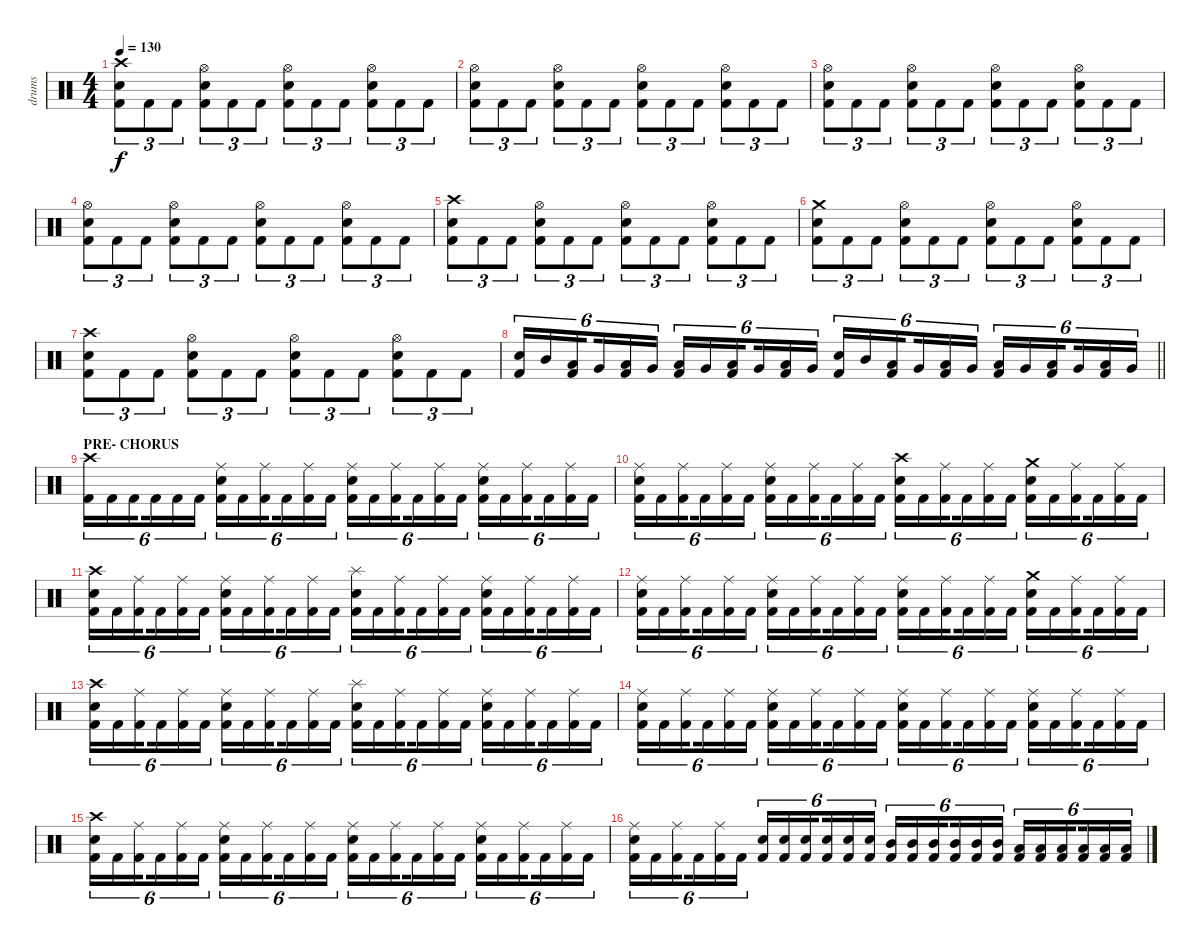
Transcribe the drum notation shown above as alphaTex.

\track ("drums" "drums") {instrument percussion}
\staff {score}
\articulation defaults
\ts (4 4)
\tempo 130
\clef neutral
\ks c
("Crash high (hit)" "Electric Snare (hit)" "Kick (hit) 2").8{tu (3 2) dy f} "Kick (hit) 2".8{tu (3 2)} "Kick (hit) 2".8{tu (3 2)} ("Hi-Hat (open)" "Electric Snare (hit)" "Kick (hit) 2").8{tu (3 2)} "Kick (hit) 2".8{tu (3 2)} "Kick (hit) 2".8{tu (3 2)} ("Hi-Hat (open)" "Electric Snare (hit)" "Kick (hit) 2").8{tu (3 2)} "Kick (hit) 2".8{tu (3 2)} "Kick (hit) 2".8{tu (3 2)} ("Hi-Hat (open)" "Electric Snare (hit)" "Kick (hit) 2").8{tu (3 2)} "Kick (hit) 2".8{tu (3 2)} "Kick (hit) 2".8{tu (3 2)} |
("Hi-Hat (open)" "Electric Snare (hit)" "Kick (hit) 2").8{tu (3 2)} "Kick (hit) 2".8{tu (3 2)} "Kick (hit) 2".8{tu (3 2)} ("Hi-Hat (open)" "Electric Snare (hit)" "Kick (hit) 2").8{tu (3 2)} "Kick (hit) 2".8{tu (3 2)} "Kick (hit) 2".8{tu (3 2)} ("Hi-Hat (open)" "Electric Snare (hit)" "Kick (hit) 2").8{tu (3 2)} "Kick (hit) 2".8{tu (3 2)} "Kick (hit) 2".8{tu (3 2)} ("Hi-Hat (open)" "Electric Snare (hit)" "Kick (hit) 2").8{tu (3 2)} "Kick (hit) 2".8{tu (3 2)} "Kick (hit) 2".8{tu (3 2)} |
("Hi-Hat (open)" "Electric Snare (hit)" "Kick (hit) 2").8{tu (3 2)} "Kick (hit) 2".8{tu (3 2)} "Kick (hit) 2".8{tu (3 2)} ("Hi-Hat (open)" "Electric Snare (hit)" "Kick (hit) 2").8{tu (3 2)} "Kick (hit) 2".8{tu (3 2)} "Kick (hit) 2".8{tu (3 2)} ("Hi-Hat (open)" "Electric Snare (hit)" "Kick (hit) 2").8{tu (3 2)} "Kick (hit) 2".8{tu (3 2)} "Kick (hit) 2".8{tu (3 2)} ("Hi-Hat (open)" "Electric Snare (hit)" "Kick (hit) 2").8{tu (3 2)} "Kick (hit) 2".8{tu (3 2)} "Kick (hit) 2".8{tu (3 2)} |
("Hi-Hat (open)" "Electric Snare (hit)" "Kick (hit) 2").8{tu (3 2)} "Kick (hit) 2".8{tu (3 2)} "Kick (hit) 2".8{tu (3 2)} ("Hi-Hat (open)" "Electric Snare (hit)" "Kick (hit) 2").8{tu (3 2)} "Kick (hit) 2".8{tu (3 2)} "Kick (hit) 2".8{tu (3 2)} ("Hi-Hat (open)" "Electric Snare (hit)" "Kick (hit) 2").8{tu (3 2)} "Kick (hit) 2".8{tu (3 2)} "Kick (hit) 2".8{tu (3 2)} ("Hi-Hat (open)" "Electric Snare (hit)" "Kick (hit) 2").8{tu (3 2)} "Kick (hit) 2".8{tu (3 2)} "Kick (hit) 2".8{tu (3 2)} |
("Crash high (hit)" "Electric Snare (hit)" "Kick (hit) 2").8{tu (3 2)} "Kick (hit) 2".8{tu (3 2)} "Kick (hit) 2".8{tu (3 2)} ("Hi-Hat (open)" "Electric Snare (hit)" "Kick (hit) 2").8{tu (3 2)} "Kick (hit) 2".8{tu (3 2)} "Kick (hit) 2".8{tu (3 2)} ("Hi-Hat (open)" "Electric Snare (hit)" "Kick (hit) 2").8{tu (3 2)} "Kick (hit) 2".8{tu (3 2)} "Kick (hit) 2".8{tu (3 2)} ("Hi-Hat (open)" "Electric Snare (hit)" "Kick (hit) 2").8{tu (3 2)} "Kick (hit) 2".8{tu (3 2)} "Kick (hit) 2".8{tu (3 2)} |
("Crash medium (hit)" "Electric Snare (hit)" "Kick (hit) 2").8{tu (3 2)} "Kick (hit) 2".8{tu (3 2)} "Kick (hit) 2".8{tu (3 2)} ("Hi-Hat (open)" "Electric Snare (hit)" "Kick (hit) 2").8{tu (3 2)} "Kick (hit) 2".8{tu (3 2)} "Kick (hit) 2".8{tu (3 2)} ("Hi-Hat (open)" "Electric Snare (hit)" "Kick (hit) 2").8{tu (3 2)} "Kick (hit) 2".8{tu (3 2)} "Kick (hit) 2".8{tu (3 2)} ("Hi-Hat (open)" "Electric Snare (hit)" "Kick (hit) 2").8{tu (3 2)} "Kick (hit) 2".8{tu (3 2)} "Kick (hit) 2".8{tu (3 2)} |
("Crash high (hit)" "Electric Snare (hit)" "Kick (hit) 2").8{tu (3 2)} "Kick (hit) 2".8{tu (3 2)} "Kick (hit) 2".8{tu (3 2)} ("Hi-Hat (open)" "Electric Snare (hit)" "Kick (hit) 2").8{tu (3 2)} "Kick (hit) 2".8{tu (3 2)} "Kick (hit) 2".8{tu (3 2)} ("Hi-Hat (open)" "Electric Snare (hit)" "Kick (hit) 2").8{tu (3 2)} "Kick (hit) 2".8{tu (3 2)} "Kick (hit) 2".8{tu (3 2)} ("Hi-Hat (open)" "Electric Snare (hit)" "Kick (hit) 2").8{tu (3 2)} "Kick (hit) 2".8{tu (3 2)} "Kick (hit) 2".8{tu (3 2)} |
\barLineRight lightlight
("Electric Snare (hit)" "Kick (hit) 2").16{tu (6 4)} "Mid Tom (hit)".16{tu (6 4)} ("Low Tom (hit)" "Kick (hit) 2").16{tu (6 4) beam splitsecondary} "Very Low Tom (hit)".16{tu (6 4)} ("Low Floor Tom (hit)" "Kick (hit) 2").16{tu (6 4)} "Very Low Tom (hit)".16{tu (6 4)} ("Low Tom (hit)" "Kick (hit) 2").16{tu (6 4)} "Very Low Tom (hit)".16{tu (6 4)} ("Low Tom (hit)" "Kick (hit) 2").16{tu (6 4) beam splitsecondary} "Very Low Tom (hit)".16{tu (6 4)} ("Low Floor Tom (hit)" "Kick (hit) 2").16{tu (6 4)} "Very Low Tom (hit)".16{tu (6 4)} ("Electric Snare (hit)" "Kick (hit) 2").16{tu (6 4)} "Mid Tom (hit)".16{tu (6 4)} ("Low Tom (hit)" "Kick (hit) 2").16{tu (6 4) beam splitsecondary} "Very Low Tom (hit)".16{tu (6 4)} ("Low Floor Tom (hit)" "Kick (hit) 2").16{tu (6 4)} "Very Low Tom (hit)".16{tu (6 4)} ("Low Tom (hit)" "Kick (hit) 2").16{tu (6 4)} "Very Low Tom (hit)".16{tu (6 4)} ("Low Tom (hit)" "Kick (hit) 2").16{tu (6 4) beam splitsecondary} "Very Low Tom (hit)".16{tu (6 4)} ("Low Floor Tom (hit)" "Kick (hit) 2").16{tu (6 4)} "Very Low Tom (hit)".16{tu (6 4)} |
\section ("" "PRE- CHORUS")
("Crash high (hit)" "Kick (hit) 2").16{tu (6 4)} "Kick (hit) 2".16{tu (6 4)} "Kick (hit) 2".16{tu (6 4) beam splitsecondary} "Kick (hit) 2".16{tu (6 4)} "Kick (hit) 2".16{tu (6 4)} "Kick (hit) 2".16{tu (6 4)} ("Ride (middle)" "Electric Snare (hit)" "Kick (hit) 2").16{tu (6 4)} "Kick (hit) 2".16{tu (6 4)} ("Ride (middle)" "Kick (hit) 2").16{tu (6 4) beam splitsecondary} "Kick (hit) 2".16{tu (6 4)} ("Ride (middle)" "Kick (hit) 2").16{tu (6 4)} "Kick (hit) 2".16{tu (6 4)} ("Ride (middle)" "Electric Snare (hit)" "Kick (hit) 2").16{tu (6 4)} "Kick (hit) 2".16{tu (6 4)} ("Ride (middle)" "Kick (hit) 2").16{tu (6 4) beam splitsecondary} "Kick (hit) 2".16{tu (6 4)} ("Ride (middle)" "Kick (hit) 2").16{tu (6 4)} "Kick (hit) 2".16{tu (6 4)} ("Ride (middle)" "Electric Snare (hit)" "Kick (hit) 2").16{tu (6 4)} "Kick (hit) 2".16{tu (6 4)} ("Ride (middle)" "Kick (hit) 2").16{tu (6 4) beam splitsecondary} "Kick (hit) 2".16{tu (6 4)} ("Ride (middle)" "Kick (hit) 2").16{tu (6 4)} "Kick (hit) 2".16{tu (6 4)} |
("Ride (middle)" "Electric Snare (hit)" "Kick (hit) 2").16{tu (6 4)} "Kick (hit) 2".16{tu (6 4)} ("Ride (middle)" "Kick (hit) 2").16{tu (6 4) beam splitsecondary} "Kick (hit) 2".16{tu (6 4)} ("Ride (middle)" "Kick (hit) 2").16{tu (6 4)} "Kick (hit) 2".16{tu (6 4)} ("Ride (middle)" "Electric Snare (hit)" "Kick (hit) 2").16{tu (6 4)} "Kick (hit) 2".16{tu (6 4)} ("Ride (middle)" "Kick (hit) 2").16{tu (6 4) beam splitsecondary} "Kick (hit) 2".16{tu (6 4)} ("Ride (middle)" "Kick (hit) 2").16{tu (6 4)} "Kick (hit) 2".16{tu (6 4)} ("Crash high (hit)" "Electric Snare (hit)" "Kick (hit) 2").16{tu (6 4)} "Kick (hit) 2".16{tu (6 4)} ("Ride (middle)" "Kick (hit) 2").16{tu (6 4) beam splitsecondary} "Kick (hit) 2".16{tu (6 4)} ("Ride (middle)" "Kick (hit) 2").16{tu (6 4)} "Kick (hit) 2".16{tu (6 4)} ("Crash medium (hit)" "Electric Snare (hit)" "Kick (hit) 2").16{tu (6 4)} "Kick (hit) 2".16{tu (6 4)} ("Ride (middle)" "Kick (hit) 2").16{tu (6 4) beam splitsecondary} "Kick (hit) 2".16{tu (6 4)} ("Ride (middle)" "Kick (hit) 2").16{tu (6 4)} "Kick (hit) 2".16{tu (6 4)} |
("Crash high (hit)" "Electric Snare (hit)" "Kick (hit) 2").16{tu (6 4)} "Kick (hit) 2".16{tu (6 4)} ("Ride (middle)" "Kick (hit) 2").16{tu (6 4) beam splitsecondary} "Kick (hit) 2".16{tu (6 4)} ("Ride (middle)" "Kick (hit) 2").16{tu (6 4)} "Kick (hit) 2".16{tu (6 4)} ("Ride (middle)" "Electric Snare (hit)" "Kick (hit) 2").16{tu (6 4)} "Kick (hit) 2".16{tu (6 4)} ("Ride (middle)" "Kick (hit) 2").16{tu (6 4) beam splitsecondary} "Kick (hit) 2".16{tu (6 4)} ("Ride (middle)" "Kick (hit) 2").16{tu (6 4)} "Kick (hit) 2".16{tu (6 4)} ("Splash (hit)" "Electric Snare (hit)" "Kick (hit) 2").16{tu (6 4)} "Kick (hit) 2".16{tu (6 4)} ("Ride (middle)" "Kick (hit) 2").16{tu (6 4) beam splitsecondary} "Kick (hit) 2".16{tu (6 4)} ("Ride (middle)" "Kick (hit) 2").16{tu (6 4)} "Kick (hit) 2".16{tu (6 4)} ("Ride (middle)" "Electric Snare (hit)" "Kick (hit) 2").16{tu (6 4)} "Kick (hit) 2".16{tu (6 4)} ("Ride (middle)" "Kick (hit) 2").16{tu (6 4) beam splitsecondary} "Kick (hit) 2".16{tu (6 4)} ("Ride (middle)" "Kick (hit) 2").16{tu (6 4)} "Kick (hit) 2".16{tu (6 4)} |
("Ride (middle)" "Electric Snare (hit)" "Kick (hit) 2").16{tu (6 4)} "Kick (hit) 2".16{tu (6 4)} ("Ride (middle)" "Kick (hit) 2").16{tu (6 4) beam splitsecondary} "Kick (hit) 2".16{tu (6 4)} ("Ride (middle)" "Kick (hit) 2").16{tu (6 4)} "Kick (hit) 2".16{tu (6 4)} ("Ride (middle)" "Electric Snare (hit)" "Kick (hit) 2").16{tu (6 4)} "Kick (hit) 2".16{tu (6 4)} ("Ride (middle)" "Kick (hit) 2").16{tu (6 4) beam splitsecondary} "Kick (hit) 2".16{tu (6 4)} ("Ride (middle)" "Kick (hit) 2").16{tu (6 4)} "Kick (hit) 2".16{tu (6 4)} ("Ride (middle)" "Electric Snare (hit)" "Kick (hit) 2").16{tu (6 4)} "Kick (hit) 2".16{tu (6 4)} ("Ride (middle)" "Kick (hit) 2").16{tu (6 4) beam splitsecondary} "Kick (hit) 2".16{tu (6 4)} ("Ride (middle)" "Kick (hit) 2").16{tu (6 4)} "Kick (hit) 2".16{tu (6 4)} ("Crash medium (hit)" "Electric Snare (hit)" "Kick (hit) 2").16{tu (6 4)} "Kick (hit) 2".16{tu (6 4)} ("Ride (middle)" "Kick (hit) 2").16{tu (6 4) beam splitsecondary} "Kick (hit) 2".16{tu (6 4)} ("Ride (middle)" "Kick (hit) 2").16{tu (6 4)} "Kick (hit) 2".16{tu (6 4)} |
("Crash high (hit)" "Electric Snare (hit)" "Kick (hit) 2").16{tu (6 4)} "Kick (hit) 2".16{tu (6 4)} ("Ride (middle)" "Kick (hit) 2").16{tu (6 4) beam splitsecondary} "Kick (hit) 2".16{tu (6 4)} ("Ride (middle)" "Kick (hit) 2").16{tu (6 4)} "Kick (hit) 2".16{tu (6 4)} ("Ride (middle)" "Electric Snare (hit)" "Kick (hit) 2").16{tu (6 4)} "Kick (hit) 2".16{tu (6 4)} ("Ride (middle)" "Kick (hit) 2").16{tu (6 4) beam splitsecondary} "Kick (hit) 2".16{tu (6 4)} ("Ride (middle)" "Kick (hit) 2").16{tu (6 4)} "Kick (hit) 2".16{tu (6 4)} ("Splash (hit)" "Electric Snare (hit)" "Kick (hit) 2").16{tu (6 4)} "Kick (hit) 2".16{tu (6 4)} ("Ride (middle)" "Kick (hit) 2").16{tu (6 4) beam splitsecondary} "Kick (hit) 2".16{tu (6 4)} ("Ride (middle)" "Kick (hit) 2").16{tu (6 4)} "Kick (hit) 2".16{tu (6 4)} ("Ride (middle)" "Electric Snare (hit)" "Kick (hit) 2").16{tu (6 4)} "Kick (hit) 2".16{tu (6 4)} ("Ride (middle)" "Kick (hit) 2").16{tu (6 4) beam splitsecondary} "Kick (hit) 2".16{tu (6 4)} ("Ride (middle)" "Kick (hit) 2").16{tu (6 4)} "Kick (hit) 2".16{tu (6 4)} |
("Ride (middle)" "Electric Snare (hit)" "Kick (hit) 2").16{tu (6 4)} "Kick (hit) 2".16{tu (6 4)} ("Ride (middle)" "Kick (hit) 2").16{tu (6 4) beam splitsecondary} "Kick (hit) 2".16{tu (6 4)} ("Ride (middle)" "Kick (hit) 2").16{tu (6 4)} "Kick (hit) 2".16{tu (6 4)} ("Ride (middle)" "Electric Snare (hit)" "Kick (hit) 2").16{tu (6 4)} "Kick (hit) 2".16{tu (6 4)} ("Ride (middle)" "Kick (hit) 2").16{tu (6 4) beam splitsecondary} "Kick (hit) 2".16{tu (6 4)} ("Ride (middle)" "Kick (hit) 2").16{tu (6 4)} "Kick (hit) 2".16{tu (6 4)} ("Ride (middle)" "Electric Snare (hit)" "Kick (hit) 2").16{tu (6 4)} "Kick (hit) 2".16{tu (6 4)} ("Ride (middle)" "Kick (hit) 2").16{tu (6 4) beam splitsecondary} "Kick (hit) 2".16{tu (6 4)} ("Ride (middle)" "Kick (hit) 2").16{tu (6 4)} "Kick (hit) 2".16{tu (6 4)} ("Ride (middle)" "Electric Snare (hit)" "Kick (hit) 2").16{tu (6 4)} "Kick (hit) 2".16{tu (6 4)} ("Ride (middle)" "Kick (hit) 2").16{tu (6 4) beam splitsecondary} "Kick (hit) 2".16{tu (6 4)} ("Ride (middle)" "Kick (hit) 2").16{tu (6 4)} "Kick (hit) 2".16{tu (6 4)} |
("Crash high (hit)" "Electric Snare (hit)" "Kick (hit) 2").16{tu (6 4)} "Kick (hit) 2".16{tu (6 4)} ("Ride (middle)" "Kick (hit) 2").16{tu (6 4) beam splitsecondary} "Kick (hit) 2".16{tu (6 4)} ("Ride (middle)" "Kick (hit) 2").16{tu (6 4)} "Kick (hit) 2".16{tu (6 4)} ("Ride (middle)" "Electric Snare (hit)" "Kick (hit) 2").16{tu (6 4)} "Kick (hit) 2".16{tu (6 4)} ("Ride (middle)" "Kick (hit) 2").16{tu (6 4) beam splitsecondary} "Kick (hit) 2".16{tu (6 4)} ("Ride (middle)" "Kick (hit) 2").16{tu (6 4)} "Kick (hit) 2".16{tu (6 4)} ("Ride (middle)" "Electric Snare (hit)" "Kick (hit) 2").16{tu (6 4)} "Kick (hit) 2".16{tu (6 4)} ("Ride (middle)" "Kick (hit) 2").16{tu (6 4) beam splitsecondary} "Kick (hit) 2".16{tu (6 4)} ("Ride (middle)" "Kick (hit) 2").16{tu (6 4)} "Kick (hit) 2".16{tu (6 4)} ("Ride (middle)" "Electric Snare (hit)" "Kick (hit) 2").16{tu (6 4)} "Kick (hit) 2".16{tu (6 4)} ("Ride (middle)" "Kick (hit) 2").16{tu (6 4) beam splitsecondary} "Kick (hit) 2".16{tu (6 4)} ("Ride (middle)" "Kick (hit) 2").16{tu (6 4)} "Kick (hit) 2".16{tu (6 4)} |
("Ride (middle)" "Electric Snare (hit)" "Kick (hit) 2").16{tu (6 4)} "Kick (hit) 2".16{tu (6 4)} ("Ride (middle)" "Kick (hit) 2").16{tu (6 4) beam splitsecondary} "Kick (hit) 2".16{tu (6 4)} ("Ride (middle)" "Kick (hit) 2").16{tu (6 4)} "Kick (hit) 2".16{tu (6 4)} ("Electric Snare (hit)" "Kick (hit) 2").16{tu (6 4)} ("Electric Snare (hit)" "Kick (hit) 2").16{tu (6 4)} ("Electric Snare (hit)" "Kick (hit) 2").16{tu (6 4) beam splitsecondary} ("Electric Snare (hit)" "Kick (hit) 2").16{tu (6 4)} ("Electric Snare (hit)" "Kick (hit) 2").16{tu (6 4)} ("Electric Snare (hit)" "Kick (hit) 2").16{tu (6 4)} ("Mid Tom (hit)" "Kick (hit) 2").16{tu (6 4)} ("Mid Tom (hit)" "Kick (hit) 2").16{tu (6 4)} ("Mid Tom (hit)" "Kick (hit) 2").16{tu (6 4) beam splitsecondary} ("Mid Tom (hit)" "Kick (hit) 2").16{tu (6 4)} ("Mid Tom (hit)" "Kick (hit) 2").16{tu (6 4)} ("Mid Tom (hit)" "Kick (hit) 2").16{tu (6 4)} ("Low Tom (hit)" "Kick (hit) 2").16{tu (6 4)} ("Low Tom (hit)" "Kick (hit) 2").16{tu (6 4)} ("Low Tom (hit)" "Kick (hit) 2").16{tu (6 4) beam splitsecondary} ("Low Tom (hit)" "Kick (hit) 2").16{tu (6 4)} ("Low Tom (hit)" "Kick (hit) 2").16{tu (6 4)} ("Low Tom (hit)" "Kick (hit) 2").16{tu (6 4)}
